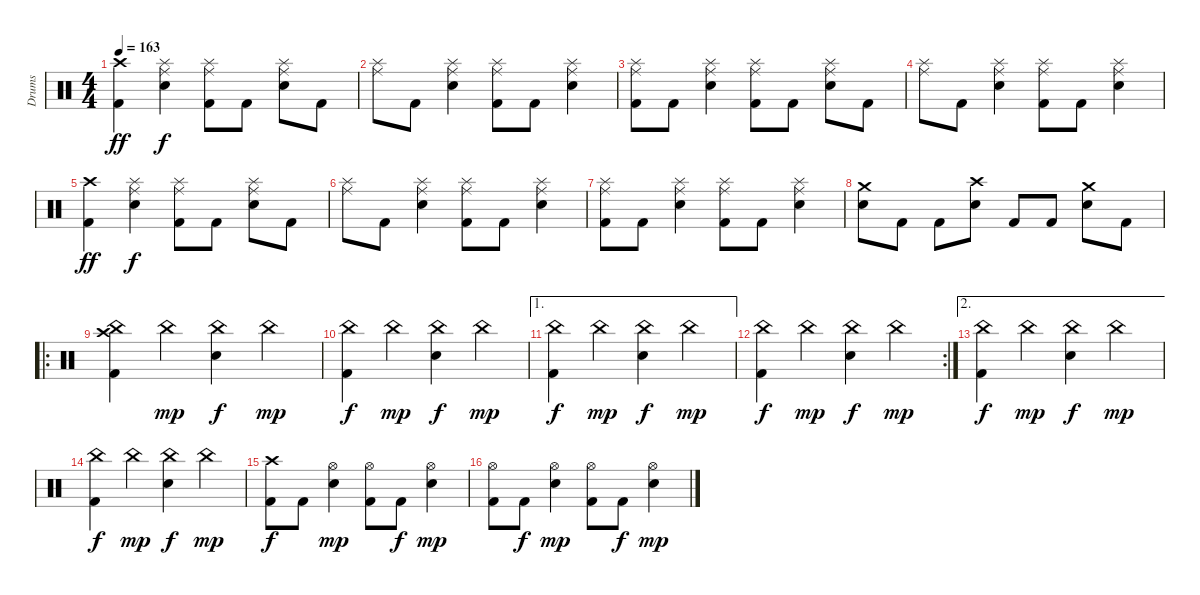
\track ("Drums" "Drums") {instrument percussion}
\staff {score}
\articulation defaults
\ts (4 4)
\tempo 163
\clef neutral
\ks c
("Crash high (hit)" "Kick (hit) 2").4{dy ff} ("Splash (hit)" "Ride (middle)" "Electric Snare (hit)").4{dy f} ("Splash (hit)" "Ride (middle)" "Kick (hit) 2").8 "Kick (hit) 2".8 ("Splash (hit)" "Ride (middle)" "Electric Snare (hit)").8 "Kick (hit) 2".8 |
("Splash (hit)" "Ride (middle)").8 "Kick (hit) 2".8 ("Splash (hit)" "Ride (middle)" "Electric Snare (hit)").4 ("Splash (hit)" "Ride (middle)" "Kick (hit) 2").8 "Kick (hit) 2".8 ("Splash (hit)" "Ride (middle)" "Electric Snare (hit)").4 |
("Splash (hit)" "Ride (middle)" "Kick (hit) 2").8 "Kick (hit) 2".8 ("Splash (hit)" "Ride (middle)" "Electric Snare (hit)").4 ("Splash (hit)" "Ride (middle)" "Kick (hit) 2").8 "Kick (hit) 2".8 ("Splash (hit)" "Ride (middle)" "Electric Snare (hit)").8 "Kick (hit) 2".8 |
("Splash (hit)" "Ride (middle)").8 "Kick (hit) 2".8 ("Splash (hit)" "Ride (middle)" "Electric Snare (hit)").4 ("Splash (hit)" "Ride (middle)" "Kick (hit) 2").8 "Kick (hit) 2".8 ("Splash (hit)" "Ride (middle)" "Electric Snare (hit)").4 |
("Crash high (hit)" "Kick (hit) 2").4{dy ff} ("Splash (hit)" "Ride (middle)" "Electric Snare (hit)").4{dy f} ("Splash (hit)" "Ride (middle)" "Kick (hit) 2").8 "Kick (hit) 2".8 ("Splash (hit)" "Ride (middle)" "Electric Snare (hit)").8 "Kick (hit) 2".8 |
("Splash (hit)" "Ride (middle)").8 "Kick (hit) 2".8 ("Splash (hit)" "Ride (middle)" "Electric Snare (hit)").4 ("Splash (hit)" "Ride (middle)" "Kick (hit) 2").8 "Kick (hit) 2".8 ("Splash (hit)" "Ride (middle)" "Electric Snare (hit)").4 |
("Splash (hit)" "Ride (middle)" "Kick (hit) 2").8 "Kick (hit) 2".8 ("Splash (hit)" "Ride (middle)" "Electric Snare (hit)").4 ("Splash (hit)" "Ride (middle)" "Kick (hit) 2").8 "Kick (hit) 2".8 ("Splash (hit)" "Ride (middle)" "Electric Snare (hit)").4 |
("Crash medium (hit)" "Electric Snare (hit)").8 "Kick (hit) 2".8 "Kick (hit) 2".8 ("Crash high (hit)" "Electric Snare (hit)").8 "Kick (hit) 2".8 "Kick (hit) 2".8 ("Crash medium (hit)" "Electric Snare (hit)").8 "Kick (hit) 2".8 |
\ro
("Crash high (hit)" "China (hit)" "Kick (hit) 2").4 "China (hit)".4{dy mp} ("China (hit)" "Electric Snare (hit)").4{dy f} "China (hit)".4{dy mp} |
("China (hit)" "Kick (hit) 2").4{dy f} "China (hit)".4{dy mp} ("China (hit)" "Electric Snare (hit)").4{dy f} "China (hit)".4{dy mp} |
\ae 1
("China (hit)" "Kick (hit) 2").4{dy f} "China (hit)".4{dy mp} ("China (hit)" "Electric Snare (hit)").4{dy f} "China (hit)".4{dy mp} |
\rc 2
("China (hit)" "Kick (hit) 2").4{dy f} "China (hit)".4{dy mp} ("China (hit)" "Electric Snare (hit)").4{dy f} "China (hit)".4{dy mp} |
\ae 2
("China (hit)" "Kick (hit) 2").4{dy f} "China (hit)".4{dy mp} ("China (hit)" "Electric Snare (hit)").4{dy f} "China (hit)".4{dy mp} |
("China (hit)" "Kick (hit) 2").4{dy f} "China (hit)".4{dy mp} ("China (hit)" "Electric Snare (hit)").4{dy f} "China (hit)".4{dy mp} |
("Crash high (hit)" "Kick (hit) 2").8{dy f} "Kick (hit) 2".8 ("Hi-Hat (open)" "Electric Snare (hit)").4{dy mp} ("Hi-Hat (open)" "Kick (hit) 2").8 "Kick (hit) 2".8{dy f} ("Hi-Hat (open)" "Electric Snare (hit)").4{dy mp} |
("Hi-Hat (open)" "Kick (hit) 2").8 "Kick (hit) 2".8{dy f} ("Hi-Hat (open)" "Electric Snare (hit)").4{dy mp} ("Hi-Hat (open)" "Kick (hit) 2").8 "Kick (hit) 2".8{dy f} ("Hi-Hat (open)" "Electric Snare (hit)").4{dy mp}
